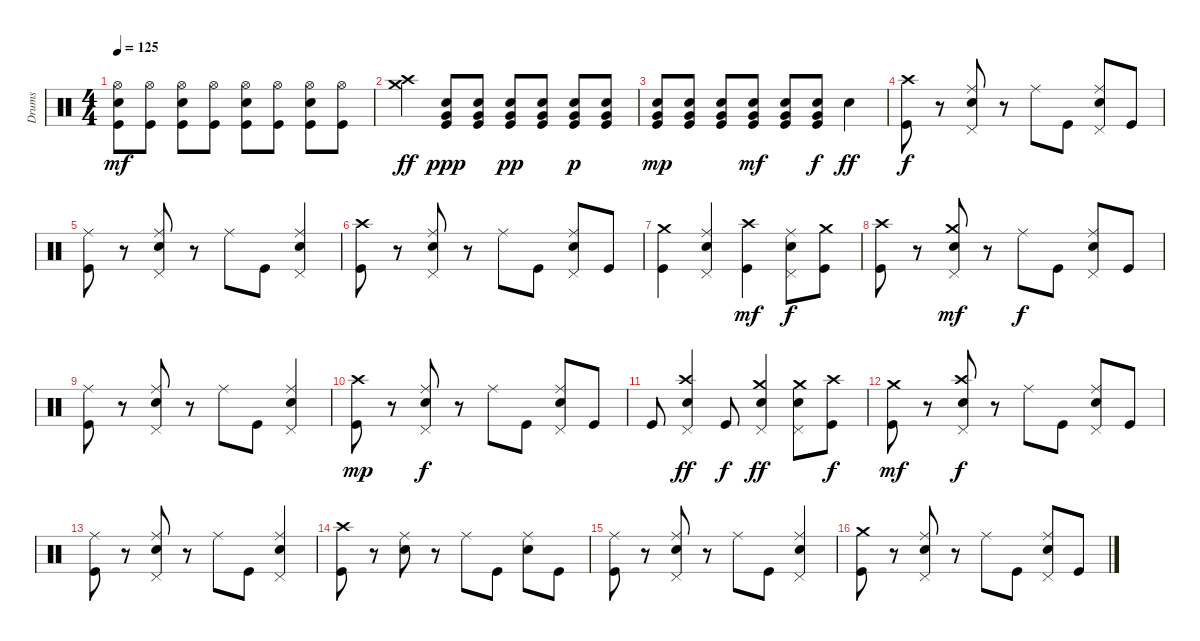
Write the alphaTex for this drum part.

\track ("Drums" "Drums") {instrument percussion}
\staff {score}
\articulation defaults
\ts (4 4)
\tempo 125
\clef neutral
\ks c
("Snare (hit) 2" "Hi-Hat (open)" "Kick (hit)").8{dy mf} ("Kick (hit)" "Hi-Hat (open)").8 ("Snare (hit) 2" "Hi-Hat (open)" "Kick (hit)").8 ("Kick (hit)" "Hi-Hat (open)").8 ("Snare (hit) 2" "Hi-Hat (open)" "Kick (hit)").8 ("Kick (hit)" "Hi-Hat (open)").8 ("Snare (hit) 2" "Hi-Hat (open)" "Kick (hit)").8 ("Kick (hit)" "Hi-Hat (open)").8 |
("Crash medium (hit)" "Crash high (hit)").4{dy ff} ("Very Low Tom (hit)" "Snare (hit) 2" "Kick (hit)").8{dy ppp} ("Very Low Tom (hit)" "Kick (hit)" "Snare (hit) 2").8 ("Very Low Tom (hit)" "Kick (hit)" "Snare (hit) 2").8{dy pp} ("Kick (hit)" "Snare (hit) 2" "Very Low Tom (hit)").8 ("Kick (hit)" "Snare (hit) 2" "Very Low Tom (hit)").8{dy p} ("Kick (hit)" "Snare (hit) 2" "Very Low Tom (hit)").8 |
("Snare (hit) 2" "Very Low Tom (hit)" "Kick (hit)").8{dy mp} ("Kick (hit)" "Snare (hit) 2" "Very Low Tom (hit)").8 ("Kick (hit)" "Snare (hit) 2" "Very Low Tom (hit)").8 ("Kick (hit)" "Snare (hit) 2" "Very Low Tom (hit)").8{dy mf} ("Kick (hit)" "Snare (hit) 2" "Very Low Tom (hit)").8 ("Kick (hit)" "Snare (hit) 2" "Very Low Tom (hit)").8{dy f} "Snare (hit) 2".4{dy ff} |
("Crash high (hit)" "Kick (hit)").8{dy f} r.8 ("Snare (hit) 2" "Ride (middle)" "Pedal Hi-Hat (hit)").8 r.8 "Ride (middle)".8 "Kick (hit)".8 ("Snare (hit) 2" "Ride (middle)" "Pedal Hi-Hat (hit)").8 "Kick (hit)".8 |
("Kick (hit)" "Ride (middle)").8 r.8 ("Snare (hit) 2" "Ride (middle)" "Pedal Hi-Hat (hit)").8 r.8 "Ride (middle)".8 "Kick (hit)".8 ("Snare (hit) 2" "Ride (middle)" "Pedal Hi-Hat (hit)").4 |
("Crash high (hit)" "Kick (hit)").8 r.8 ("Snare (hit) 2" "Ride (middle)" "Pedal Hi-Hat (hit)").8 r.8 "Ride (middle)".8 "Kick (hit)".8 ("Snare (hit) 2" "Ride (middle)" "Pedal Hi-Hat (hit)").8 "Kick (hit)".8 |
("Kick (hit)" "Crash medium (hit)").4 ("Snare (hit) 2" "Pedal Hi-Hat (hit)" "Ride (middle)").4 ("Crash high (hit)" "Kick (hit)").4{dy mf} ("Snare (hit) 2" "Pedal Hi-Hat (hit)" "Ride (middle)").8{dy f} ("Crash medium (hit)" "Kick (hit)").8 |
("Crash high (hit)" "Kick (hit)").8 r.8 ("Snare (hit) 2" "Crash medium (hit)" "Pedal Hi-Hat (hit)").8{dy mf} r.8 "Ride (middle)".8{dy f} "Kick (hit)".8 ("Snare (hit) 2" "Ride (middle)" "Pedal Hi-Hat (hit)").8 "Kick (hit)".8 |
("Kick (hit)" "Ride (middle)").8 r.8 ("Snare (hit) 2" "Ride (middle)" "Pedal Hi-Hat (hit)").8 r.8 "Ride (middle)".8 "Kick (hit)".8 ("Snare (hit) 2" "Ride (middle)" "Pedal Hi-Hat (hit)").4 |
("Kick (hit)" "Crash high (hit)").8{dy mp} r.8 ("Snare (hit) 2" "Ride (middle)" "Pedal Hi-Hat (hit)").8{dy f} r.8 "Ride (middle)".8 "Kick (hit)".8 ("Snare (hit) 2" "Ride (middle)" "Pedal Hi-Hat (hit)").8 "Kick (hit)".8 |
"Kick (hit)".8 ("Snare (hit) 2" "Pedal Hi-Hat (hit)" "Crash high (hit)").4{dy ff} "Kick (hit)".8{dy f} ("Snare (hit) 2" "Pedal Hi-Hat (hit)" "Crash medium (hit)").4{dy ff} ("Snare (hit) 2" "Pedal Hi-Hat (hit)" "Crash medium (hit)").8 ("Kick (hit)" "Crash high (hit)").8{dy f} |
("Crash medium (hit)" "Kick (hit)").8{dy mf} r.8 ("Snare (hit) 2" "Crash high (hit)" "Pedal Hi-Hat (hit)").8{dy f} r.8 "Ride (middle)".8 "Kick (hit)".8 ("Snare (hit) 2" "Ride (middle)" "Pedal Hi-Hat (hit)").8 "Kick (hit)".8 |
("Kick (hit)" "Ride (middle)").8 r.8 ("Snare (hit) 2" "Ride (middle)" "Pedal Hi-Hat (hit)").8 r.8 "Ride (middle)".8 "Kick (hit)".8 ("Snare (hit) 2" "Ride (middle)" "Pedal Hi-Hat (hit)").4 |
("Crash high (hit)" "Kick (hit)").8 r.8 ("Snare (hit) 2" "Ride (middle)").8 r.8 "Ride (middle)".8 "Kick (hit)".8 ("Snare (hit) 2" "Ride (middle)").8 "Kick (hit)".8 |
("Kick (hit)" "Ride (middle)").8 r.8 ("Snare (hit) 2" "Ride (middle)" "Pedal Hi-Hat (hit)").8 r.8 "Ride (middle)".8 "Kick (hit)".8 ("Snare (hit) 2" "Ride (middle)" "Pedal Hi-Hat (hit)").4 |
("Crash medium (hit)" "Kick (hit)").8 r.8 ("Snare (hit) 2" "Ride (middle)" "Pedal Hi-Hat (hit)").8 r.8 "Ride (middle)".8 "Kick (hit)".8 ("Snare (hit) 2" "Ride (middle)" "Pedal Hi-Hat (hit)").8 "Kick (hit)".8
